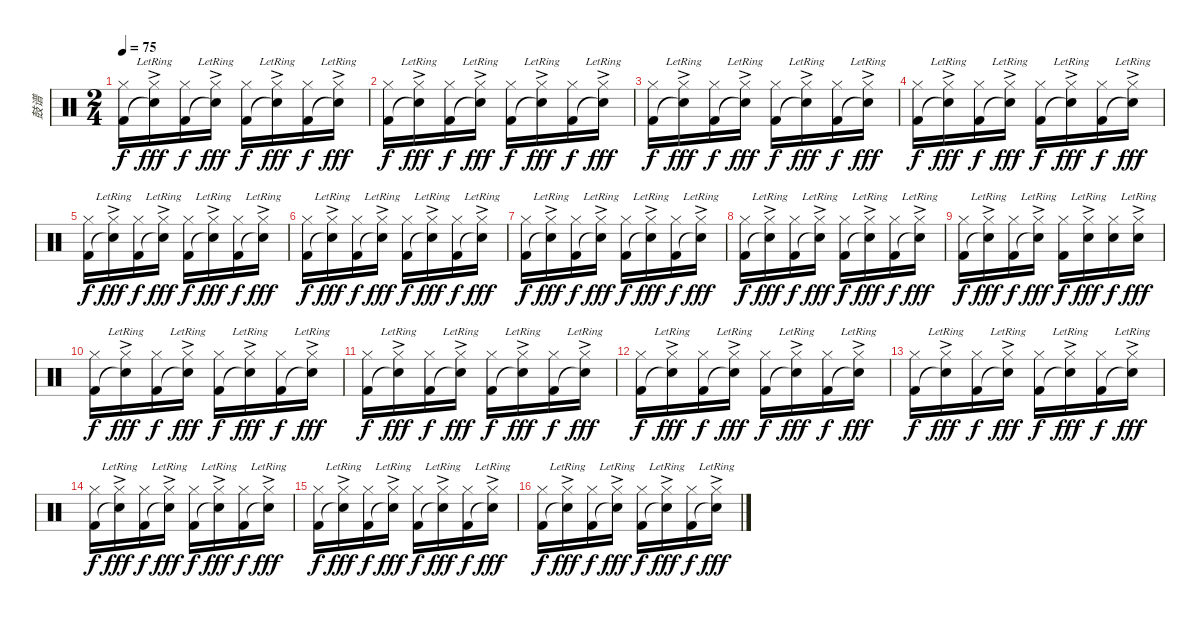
\track ("鼓谱" "鼓谱") {instrument percussion}
\staff {score}
\articulation defaults
\ts (2 4)
\tempo 75
\clef neutral
\ks c
("Kick (hit) 2" "Hi-Hat (closed)").16{dy f} ("Snare (hit)"{t} "Hi-Hat (closed)"{ac lr}).16{dy fff} ("Kick (hit) 2" "Hi-Hat (closed)").16{dy f} ("Snare (hit)"{t} "Hi-Hat (closed)"{ac lr}).16{dy fff} ("Kick (hit) 2" "Hi-Hat (closed)").16{dy f} ("Snare (hit)"{t} "Hi-Hat (closed)"{ac lr}).16{dy fff} ("Kick (hit) 2" "Hi-Hat (closed)").16{dy f} ("Snare (hit)"{t} "Hi-Hat (closed)"{ac lr}).16{dy fff} |
("Kick (hit) 2" "Hi-Hat (closed)").16{dy f} ("Snare (hit)"{t} "Hi-Hat (closed)"{ac lr}).16{dy fff} ("Kick (hit) 2" "Hi-Hat (closed)").16{dy f} ("Snare (hit)"{t} "Hi-Hat (closed)"{ac lr}).16{dy fff} ("Kick (hit) 2" "Hi-Hat (closed)").16{dy f} ("Snare (hit)"{t} "Hi-Hat (closed)"{ac lr}).16{dy fff} ("Kick (hit) 2" "Hi-Hat (closed)").16{dy f} ("Snare (hit)"{t} "Hi-Hat (closed)"{ac lr}).16{dy fff} |
("Kick (hit) 2" "Hi-Hat (closed)").16{dy f} ("Snare (hit)"{t} "Hi-Hat (closed)"{ac lr}).16{dy fff} ("Kick (hit) 2" "Hi-Hat (closed)").16{dy f} ("Snare (hit)"{t} "Hi-Hat (closed)"{ac lr}).16{dy fff} ("Kick (hit) 2" "Hi-Hat (closed)").16{dy f} ("Snare (hit)"{t} "Hi-Hat (closed)"{ac lr}).16{dy fff} ("Kick (hit) 2" "Hi-Hat (closed)").16{dy f} ("Snare (hit)"{t} "Hi-Hat (closed)"{ac lr}).16{dy fff} |
("Kick (hit) 2" "Hi-Hat (closed)").16{dy f} ("Snare (hit)"{t} "Hi-Hat (closed)"{ac lr}).16{dy fff} ("Kick (hit) 2" "Hi-Hat (closed)").16{dy f} ("Snare (hit)"{t} "Hi-Hat (closed)"{ac lr}).16{dy fff} ("Kick (hit) 2" "Hi-Hat (closed)").16{dy f} ("Snare (hit)"{t} "Hi-Hat (closed)"{ac lr}).16{dy fff} ("Kick (hit) 2" "Hi-Hat (closed)").16{dy f} ("Snare (hit)"{t} "Hi-Hat (closed)"{ac lr}).16{dy fff} |
("Kick (hit) 2" "Hi-Hat (closed)").16{dy f} ("Snare (hit)"{t} "Hi-Hat (closed)"{ac lr}).16{dy fff} ("Kick (hit) 2" "Hi-Hat (closed)").16{dy f} ("Snare (hit)"{t} "Hi-Hat (closed)"{ac lr}).16{dy fff} ("Kick (hit) 2" "Hi-Hat (closed)").16{dy f} ("Snare (hit)"{t} "Hi-Hat (closed)"{ac lr}).16{dy fff} ("Kick (hit) 2" "Hi-Hat (closed)").16{dy f} ("Snare (hit)"{t} "Hi-Hat (closed)"{ac lr}).16{dy fff} |
("Kick (hit) 2" "Hi-Hat (closed)").16{dy f} ("Snare (hit)"{t} "Hi-Hat (closed)"{ac lr}).16{dy fff} ("Kick (hit) 2" "Hi-Hat (closed)").16{dy f} ("Snare (hit)"{t} "Hi-Hat (closed)"{ac lr}).16{dy fff} ("Kick (hit) 2" "Hi-Hat (closed)").16{dy f} ("Snare (hit)"{t} "Hi-Hat (closed)"{ac lr}).16{dy fff} ("Kick (hit) 2" "Hi-Hat (closed)").16{dy f} ("Snare (hit)"{t} "Hi-Hat (closed)"{ac lr}).16{dy fff} |
("Kick (hit) 2" "Hi-Hat (closed)").16{dy f} ("Snare (hit)"{t} "Hi-Hat (closed)"{ac lr}).16{dy fff} ("Kick (hit) 2" "Hi-Hat (closed)").16{dy f} ("Snare (hit)"{t} "Hi-Hat (closed)"{ac lr}).16{dy fff} ("Kick (hit) 2" "Hi-Hat (closed)").16{dy f} ("Snare (hit)"{t} "Hi-Hat (closed)"{ac lr}).16{dy fff} ("Kick (hit) 2" "Hi-Hat (closed)").16{dy f} ("Snare (hit)"{t} "Hi-Hat (closed)"{ac lr}).16{dy fff} |
("Kick (hit) 2" "Hi-Hat (closed)").16{dy f} ("Snare (hit)"{t} "Hi-Hat (closed)"{ac lr}).16{dy fff} ("Kick (hit) 2" "Hi-Hat (closed)").16{dy f} ("Snare (hit)"{t} "Hi-Hat (closed)"{ac lr}).16{dy fff} ("Kick (hit) 2" "Hi-Hat (closed)").16{dy f} ("Snare (hit)"{t} "Hi-Hat (closed)"{ac lr}).16{dy fff} ("Kick (hit) 2" "Hi-Hat (closed)").16{dy f} ("Snare (hit)"{t} "Hi-Hat (closed)"{ac lr}).16{dy fff} |
("Kick (hit) 2" "Hi-Hat (closed)").16{dy f} ("Snare (hit)"{t} "Hi-Hat (closed)"{ac lr}).16{dy fff} ("Kick (hit) 2" "Hi-Hat (closed)").16{dy f} ("Snare (hit)"{t} "Hi-Hat (closed)"{ac lr}).16{dy fff} ("Kick (hit) 2" "Hi-Hat (closed)").16{dy f} ("Electric Snare (hit)" "Hi-Hat (closed)"{ac lr}).16{dy fff} ("Electric Snare (hit)" "Hi-Hat (closed)").16{dy f volume 14} ("Electric Snare (hit)" "Hi-Hat (closed)"{ac lr}).16{dy fff volume 16} |
("Kick (hit) 2" "Hi-Hat (closed)").16{dy f volume 12} ("Snare (hit)"{t} "Hi-Hat (closed)"{ac lr}).16{dy fff} ("Kick (hit) 2" "Hi-Hat (closed)").16{dy f} ("Snare (hit)"{t} "Hi-Hat (closed)"{ac lr}).16{dy fff} ("Kick (hit) 2" "Hi-Hat (closed)").16{dy f} ("Snare (hit)"{t} "Hi-Hat (closed)"{ac lr}).16{dy fff} ("Kick (hit) 2" "Hi-Hat (closed)").16{dy f} ("Snare (hit)"{t} "Hi-Hat (closed)"{ac lr}).16{dy fff} |
("Kick (hit) 2" "Hi-Hat (closed)").16{dy f} ("Snare (hit)"{t} "Hi-Hat (closed)"{ac lr}).16{dy fff} ("Kick (hit) 2" "Hi-Hat (closed)").16{dy f} ("Snare (hit)"{t} "Hi-Hat (closed)"{ac lr}).16{dy fff} ("Kick (hit) 2" "Hi-Hat (closed)").16{dy f} ("Snare (hit)"{t} "Hi-Hat (closed)"{ac lr}).16{dy fff} ("Kick (hit) 2" "Hi-Hat (closed)").16{dy f} ("Snare (hit)"{t} "Hi-Hat (closed)"{ac lr}).16{dy fff} |
("Kick (hit) 2" "Hi-Hat (closed)").16{dy f} ("Snare (hit)"{t} "Hi-Hat (closed)"{ac lr}).16{dy fff} ("Kick (hit) 2" "Hi-Hat (closed)").16{dy f} ("Snare (hit)"{t} "Hi-Hat (closed)"{ac lr}).16{dy fff} ("Kick (hit) 2" "Hi-Hat (closed)").16{dy f} ("Snare (hit)"{t} "Hi-Hat (closed)"{ac lr}).16{dy fff} ("Kick (hit) 2" "Hi-Hat (closed)").16{dy f} ("Snare (hit)"{t} "Hi-Hat (closed)"{ac lr}).16{dy fff} |
("Kick (hit) 2" "Hi-Hat (closed)").16{dy f} ("Snare (hit)"{t} "Hi-Hat (closed)"{ac lr}).16{dy fff} ("Kick (hit) 2" "Hi-Hat (closed)").16{dy f} ("Snare (hit)"{t} "Hi-Hat (closed)"{ac lr}).16{dy fff} ("Kick (hit) 2" "Hi-Hat (closed)").16{dy f} ("Snare (hit)"{t} "Hi-Hat (closed)"{ac lr}).16{dy fff} ("Kick (hit) 2" "Hi-Hat (closed)").16{dy f} ("Snare (hit)"{t} "Hi-Hat (closed)"{ac lr}).16{dy fff} |
("Kick (hit) 2" "Hi-Hat (closed)").16{dy f} ("Snare (hit)"{t} "Hi-Hat (closed)"{ac lr}).16{dy fff} ("Kick (hit) 2" "Hi-Hat (closed)").16{dy f} ("Snare (hit)"{t} "Hi-Hat (closed)"{ac lr}).16{dy fff} ("Kick (hit) 2" "Hi-Hat (closed)").16{dy f} ("Snare (hit)"{t} "Hi-Hat (closed)"{ac lr}).16{dy fff} ("Kick (hit) 2" "Hi-Hat (closed)").16{dy f} ("Snare (hit)"{t} "Hi-Hat (closed)"{ac lr}).16{dy fff} |
("Kick (hit) 2" "Hi-Hat (closed)").16{dy f} ("Snare (hit)"{t} "Hi-Hat (closed)"{ac lr}).16{dy fff} ("Kick (hit) 2" "Hi-Hat (closed)").16{dy f} ("Snare (hit)"{t} "Hi-Hat (closed)"{ac lr}).16{dy fff} ("Kick (hit) 2" "Hi-Hat (closed)").16{dy f} ("Snare (hit)"{t} "Hi-Hat (closed)"{ac lr}).16{dy fff} ("Kick (hit) 2" "Hi-Hat (closed)").16{dy f} ("Snare (hit)"{t} "Hi-Hat (closed)"{ac lr}).16{dy fff} |
("Kick (hit) 2" "Hi-Hat (closed)").16{dy f} ("Snare (hit)"{t} "Hi-Hat (closed)"{ac lr}).16{dy fff} ("Kick (hit) 2" "Hi-Hat (closed)").16{dy f} ("Snare (hit)"{t} "Hi-Hat (closed)"{ac lr}).16{dy fff} ("Kick (hit) 2" "Hi-Hat (closed)").16{dy f} ("Snare (hit)"{t} "Hi-Hat (closed)"{ac lr}).16{dy fff} ("Kick (hit) 2" "Hi-Hat (closed)").16{dy f} ("Snare (hit)"{t} "Hi-Hat (closed)"{ac lr}).16{dy fff}
